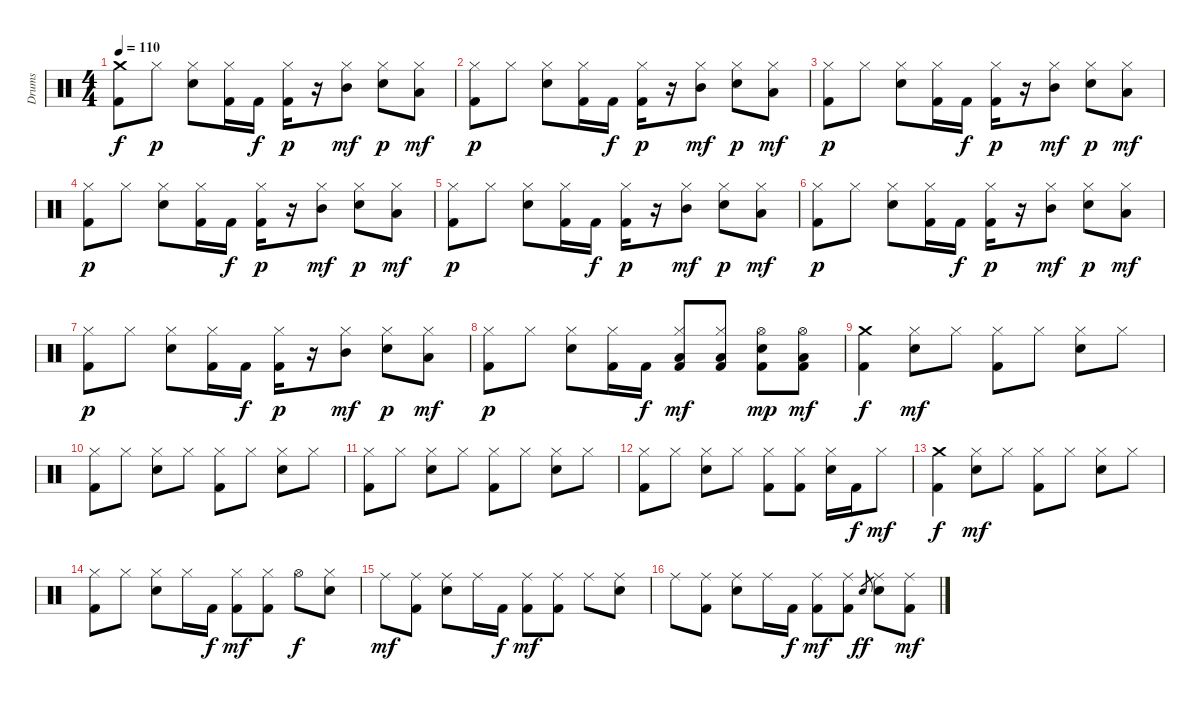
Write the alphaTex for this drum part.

\track ("Drums" "Drums") {instrument percussion}
\staff {score}
\articulation defaults
\ts (4 4)
\tempo 110
\clef neutral
\ks c
("Crash medium (hit)" "Kick (hit) 2").8{dy f} "Hi-Hat (closed)".8{dy p} ("Hi-Hat (closed)" "Electric Snare (hit)").8 ("Hi-Hat (closed)" "Kick (hit) 2").16 "Kick (hit) 2".16{dy f} ("Hi-Hat (closed)" "Kick (hit) 2").16{dy p} r.16 ("Hi-Hat (closed)" "Mid Tom (hit)").8{dy mf} ("Hi-Hat (closed)" "Electric Snare (hit)").8{dy p} ("Hi-Hat (closed)" "Low Tom (hit)").8{dy mf} |
("Hi-Hat (closed)" "Kick (hit) 2").8{dy p} "Hi-Hat (closed)".8 ("Hi-Hat (closed)" "Electric Snare (hit)").8 ("Hi-Hat (closed)" "Kick (hit) 2").16 "Kick (hit) 2".16{dy f} ("Hi-Hat (closed)" "Kick (hit) 2").16{dy p} r.16 ("Hi-Hat (closed)" "Mid Tom (hit)").8{dy mf} ("Hi-Hat (closed)" "Electric Snare (hit)").8{dy p} ("Hi-Hat (closed)" "Low Tom (hit)").8{dy mf} |
("Hi-Hat (closed)" "Kick (hit) 2").8{dy p} "Hi-Hat (closed)".8 ("Hi-Hat (closed)" "Electric Snare (hit)").8 ("Hi-Hat (closed)" "Kick (hit) 2").16 "Kick (hit) 2".16{dy f} ("Hi-Hat (closed)" "Kick (hit) 2").16{dy p} r.16 ("Hi-Hat (closed)" "Mid Tom (hit)").8{dy mf} ("Hi-Hat (closed)" "Electric Snare (hit)").8{dy p} ("Hi-Hat (closed)" "Low Tom (hit)").8{dy mf} |
("Hi-Hat (closed)" "Kick (hit) 2").8{dy p} "Hi-Hat (closed)".8 ("Hi-Hat (closed)" "Electric Snare (hit)").8 ("Hi-Hat (closed)" "Kick (hit) 2").16 "Kick (hit) 2".16{dy f} ("Hi-Hat (closed)" "Kick (hit) 2").16{dy p} r.16 ("Hi-Hat (closed)" "Mid Tom (hit)").8{dy mf} ("Hi-Hat (closed)" "Electric Snare (hit)").8{dy p} ("Hi-Hat (closed)" "Low Tom (hit)").8{dy mf} |
("Hi-Hat (closed)" "Kick (hit) 2").8{dy p} "Hi-Hat (closed)".8 ("Hi-Hat (closed)" "Electric Snare (hit)").8 ("Hi-Hat (closed)" "Kick (hit) 2").16 "Kick (hit) 2".16{dy f} ("Hi-Hat (closed)" "Kick (hit) 2").16{dy p} r.16 ("Hi-Hat (closed)" "Mid Tom (hit)").8{dy mf} ("Hi-Hat (closed)" "Electric Snare (hit)").8{dy p} ("Hi-Hat (closed)" "Low Tom (hit)").8{dy mf} |
("Hi-Hat (closed)" "Kick (hit) 2").8{dy p} "Hi-Hat (closed)".8 ("Hi-Hat (closed)" "Electric Snare (hit)").8 ("Hi-Hat (closed)" "Kick (hit) 2").16 "Kick (hit) 2".16{dy f} ("Hi-Hat (closed)" "Kick (hit) 2").16{dy p} r.16 ("Hi-Hat (closed)" "Mid Tom (hit)").8{dy mf} ("Hi-Hat (closed)" "Electric Snare (hit)").8{dy p} ("Hi-Hat (closed)" "Low Tom (hit)").8{dy mf} |
("Hi-Hat (closed)" "Kick (hit) 2").8{dy p} "Hi-Hat (closed)".8 ("Hi-Hat (closed)" "Electric Snare (hit)").8 ("Hi-Hat (closed)" "Kick (hit) 2").16 "Kick (hit) 2".16{dy f} ("Hi-Hat (closed)" "Kick (hit) 2").16{dy p} r.16 ("Hi-Hat (closed)" "Mid Tom (hit)").8{dy mf} ("Hi-Hat (closed)" "Electric Snare (hit)").8{dy p} ("Hi-Hat (closed)" "Low Tom (hit)").8{dy mf} |
("Hi-Hat (closed)" "Kick (hit) 2").8{dy p} "Hi-Hat (closed)".8 ("Hi-Hat (closed)" "Electric Snare (hit)").8 ("Hi-Hat (closed)" "Kick (hit) 2").16 "Kick (hit) 2".16{dy f} ("Hi-Hat (closed)" "Low Floor Tom (hit)" "Kick (hit) 2").8{dy mf} ("Hi-Hat (closed)" "Low Floor Tom (hit)" "Kick (hit) 2").8 ("Hi-Hat (open)" "Electric Snare (hit)" "Kick (hit) 2").8{dy mp} ("Hi-Hat (open)" "Low Floor Tom (hit)" "Kick (hit) 2").8{dy mf} |
("Crash medium (hit)" "Kick (hit) 2").4{dy f} ("Hi-Hat (closed)" "Electric Snare (hit)").8{dy mf} "Hi-Hat (closed)".8 ("Hi-Hat (closed)" "Kick (hit) 2").8 "Hi-Hat (closed)".8 ("Hi-Hat (closed)" "Electric Snare (hit)").8 "Hi-Hat (closed)".8 |
("Hi-Hat (closed)" "Kick (hit) 2").8 "Hi-Hat (closed)".8 ("Hi-Hat (closed)" "Electric Snare (hit)").8 "Hi-Hat (closed)".8 ("Hi-Hat (closed)" "Kick (hit) 2").8 "Hi-Hat (closed)".8 ("Hi-Hat (closed)" "Electric Snare (hit)").8 "Hi-Hat (closed)".8 |
("Hi-Hat (closed)" "Kick (hit) 2").8 "Hi-Hat (closed)".8 ("Hi-Hat (closed)" "Electric Snare (hit)").8 "Hi-Hat (closed)".8 ("Hi-Hat (closed)" "Kick (hit) 2").8 "Hi-Hat (closed)".8 ("Hi-Hat (closed)" "Electric Snare (hit)").8 "Hi-Hat (closed)".8 |
("Hi-Hat (closed)" "Kick (hit) 2").8 "Hi-Hat (closed)".8 ("Hi-Hat (closed)" "Electric Snare (hit)").8 "Hi-Hat (closed)".8 ("Hi-Hat (closed)" "Kick (hit) 2").8 ("Hi-Hat (closed)" "Kick (hit) 2").8 ("Hi-Hat (closed)" "Electric Snare (hit)").16 "Kick (hit) 2".16{dy f} "Hi-Hat (closed)".8{dy mf} |
("Crash medium (hit)" "Kick (hit) 2").4{dy f} ("Hi-Hat (closed)" "Electric Snare (hit)").8{dy mf} "Hi-Hat (closed)".8 ("Hi-Hat (closed)" "Kick (hit) 2").8 "Hi-Hat (closed)".8 ("Hi-Hat (closed)" "Electric Snare (hit)").8 "Hi-Hat (closed)".8 |
("Hi-Hat (closed)" "Kick (hit) 2").8 "Hi-Hat (closed)".8 ("Hi-Hat (closed)" "Electric Snare (hit)").8 "Hi-Hat (closed)".16 "Kick (hit) 2".16{dy f} ("Hi-Hat (closed)" "Kick (hit) 2").8{dy mf} ("Hi-Hat (closed)" "Kick (hit) 2").8 "Hi-Hat (open)".8{dy f} ("Hi-Hat (closed)" "Electric Snare (hit)").8 |
"Ride (middle)".8{dy mf} ("Ride (middle)" "Kick (hit) 2").8 ("Ride (middle)" "Electric Snare (hit)").8 "Ride (middle)".16 "Kick (hit) 2".16{dy f} ("Ride (middle)" "Kick (hit) 2").8{dy mf} ("Ride (middle)" "Kick (hit) 2").8 "Ride (middle)".8 ("Ride (middle)" "Electric Snare (hit)").8 |
"Ride (middle)".8 ("Ride (middle)" "Kick (hit) 2").8 ("Ride (middle)" "Electric Snare (hit)").8 "Ride (middle)".16 "Kick (hit) 2".16{dy f} ("Ride (middle)" "Kick (hit) 2").8{dy mf} ("Ride (middle)" "Kick (hit) 2").8 "Electric Snare (hit)".8{gr dy ff} ("Ride (middle)" "Electric Snare (hit)").8 ("Ride (middle)" "Kick (hit) 2").8{dy mf}
